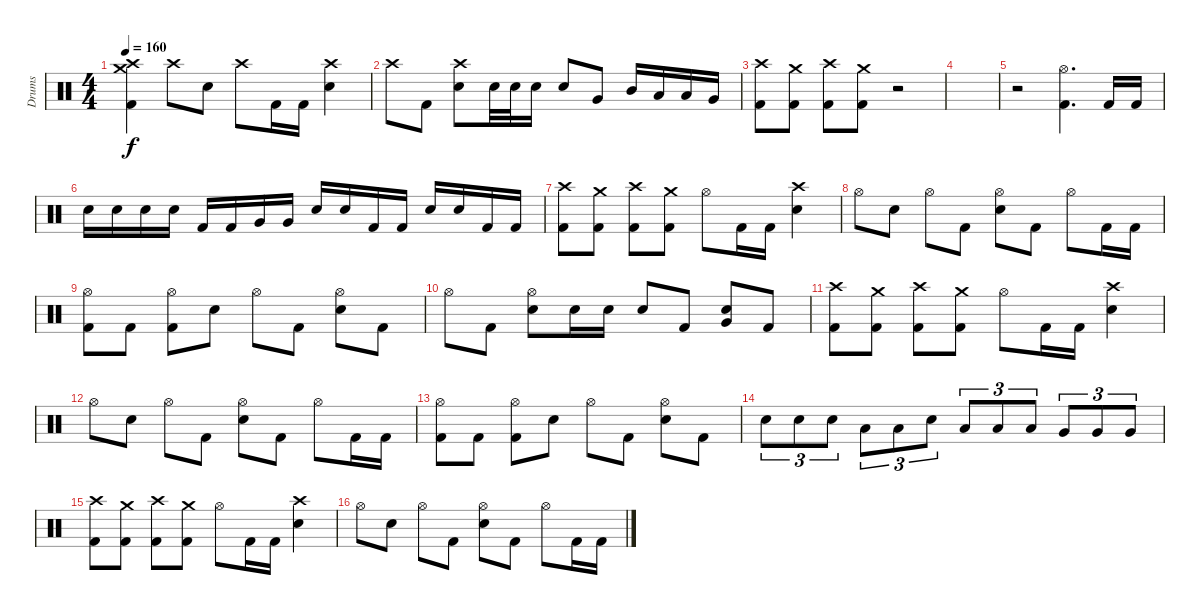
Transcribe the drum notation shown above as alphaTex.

\track ("Drums" "Drums") {instrument percussion}
\staff {score}
\articulation defaults
\ts (4 4)
\tempo 160
\clef neutral
\ks c
("Crash high (hit)" "Crash medium (hit)" "Kick (hit) 2").4{dy f} "Crash high (hit)".8 "Electric Snare (hit)".8 "Crash high (hit)".8 "Kick (hit) 2".16 "Kick (hit) 2".16 ("Crash high (hit)" "Electric Snare (hit)").4 |
"Crash high (hit)".8 "Kick (hit) 2".8 ("Crash high (hit)" "Electric Snare (hit)").8 "Electric Snare (hit)".32 "Electric Snare (hit)".32 "Electric Snare (hit)".16 "Electric Snare (hit)".8 "Very Low Tom (hit)".8 "Mid Tom (hit)".16 "Low Tom (hit)".16 "Low Tom (hit)".16 "Very Low Tom (hit)".16 |
("Crash high (hit)" "Kick (hit) 2").8 ("Crash medium (hit)" "Kick (hit) 2").8 ("Crash high (hit)" "Kick (hit) 2").8 ("Crash medium (hit)" "Kick (hit) 2").8 r.2{volume 0} |
|
r.2 ("Hi-Hat (open)" "Kick (hit) 2").4{d volume 16} "Kick (hit) 2".16 "Kick (hit) 2".16 |
"Electric Snare (hit)".16 "Electric Snare (hit)".16 "Electric Snare (hit)".16 "Electric Snare (hit)".16 "Kick (hit) 2".16 "Kick (hit) 2".16 "Very Low Tom (hit)".16 "Very Low Tom (hit)".16 "Electric Snare (hit)".16 "Electric Snare (hit)".16 "Kick (hit) 2".16 "Kick (hit) 2".16 "Electric Snare (hit)".16 "Electric Snare (hit)".16 "Kick (hit) 2".16 "Kick (hit) 2".16 |
("Crash high (hit)" "Kick (hit) 2").8 ("Crash medium (hit)" "Kick (hit) 2").8 ("Crash high (hit)" "Kick (hit) 2").8 ("Crash medium (hit)" "Kick (hit) 2").8 "Hi-Hat (open)".8 "Kick (hit) 2".16 "Kick (hit) 2".16 ("Crash high (hit)" "Electric Snare (hit)").4 |
"Hi-Hat (open)".8 "Electric Snare (hit)".8 "Hi-Hat (open)".8 "Kick (hit) 2".8 ("Hi-Hat (open)" "Electric Snare (hit)").8 "Kick (hit) 2".8 "Hi-Hat (open)".8 "Kick (hit) 2".16 "Kick (hit) 2".16 |
("Hi-Hat (open)" "Kick (hit) 2").8 "Kick (hit) 2".8 ("Hi-Hat (open)" "Kick (hit) 2").8 "Electric Snare (hit)".8 "Hi-Hat (open)".8 "Kick (hit) 2".8 ("Hi-Hat (open)" "Electric Snare (hit)").8 "Kick (hit) 2".8 |
"Hi-Hat (open)".8 "Kick (hit) 2".8 ("Hi-Hat (open)" "Electric Snare (hit)").8 "Electric Snare (hit)".16 "Electric Snare (hit)".16 "Electric Snare (hit)".8 "Kick (hit) 2".8 ("Very Low Tom (hit)" "Electric Snare (hit)").8 "Kick (hit) 2".8 |
("Crash high (hit)" "Kick (hit) 2").8 ("Crash medium (hit)" "Kick (hit) 2").8 ("Crash high (hit)" "Kick (hit) 2").8 ("Crash medium (hit)" "Kick (hit) 2").8 "Hi-Hat (open)".8 "Kick (hit) 2".16 "Kick (hit) 2".16 ("Crash high (hit)" "Electric Snare (hit)").4 |
"Hi-Hat (open)".8 "Electric Snare (hit)".8 "Hi-Hat (open)".8 "Kick (hit) 2".8 ("Hi-Hat (open)" "Electric Snare (hit)").8 "Kick (hit) 2".8 "Hi-Hat (open)".8 "Kick (hit) 2".16 "Kick (hit) 2".16 |
("Hi-Hat (open)" "Kick (hit) 2").8 "Kick (hit) 2".8 ("Hi-Hat (open)" "Kick (hit) 2").8 "Electric Snare (hit)".8 "Hi-Hat (open)".8 "Kick (hit) 2".8 ("Hi-Hat (open)" "Electric Snare (hit)").8 "Kick (hit) 2".8 |
"Electric Snare (hit)".8{tu (3 2)} "Electric Snare (hit)".8{tu (3 2)} "Electric Snare (hit)".8{tu (3 2)} "Low Tom (hit)".8{tu (3 2)} "Low Tom (hit)".8{tu (3 2)} "Electric Snare (hit)".8{tu (3 2)} "Low Tom (hit)".8{tu (3 2)} "Low Tom (hit)".8{tu (3 2)} "Low Tom (hit)".8{tu (3 2)} "Very Low Tom (hit)".8{tu (3 2)} "Very Low Tom (hit)".8{tu (3 2)} "Very Low Tom (hit)".8{tu (3 2)} |
("Crash high (hit)" "Kick (hit) 2").8 ("Crash medium (hit)" "Kick (hit) 2").8 ("Crash high (hit)" "Kick (hit) 2").8 ("Crash medium (hit)" "Kick (hit) 2").8 "Hi-Hat (open)".8 "Kick (hit) 2".16 "Kick (hit) 2".16 ("Crash high (hit)" "Electric Snare (hit)").4 |
"Hi-Hat (open)".8 "Electric Snare (hit)".8 "Hi-Hat (open)".8 "Kick (hit) 2".8 ("Hi-Hat (open)" "Electric Snare (hit)").8 "Kick (hit) 2".8 "Hi-Hat (open)".8 "Kick (hit) 2".16 "Kick (hit) 2".16
